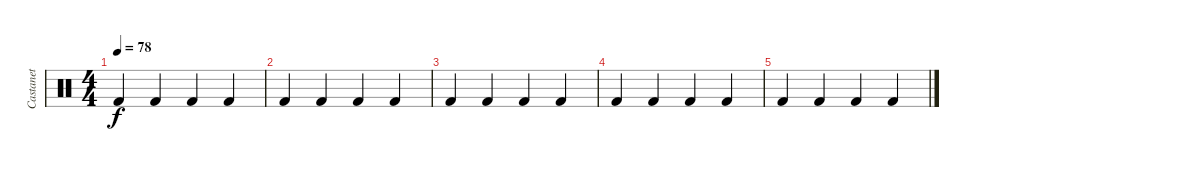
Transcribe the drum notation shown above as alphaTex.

\track ("Castanet" "Castanet") {instrument percussion}
\staff {score}
\articulation defaults
\ts (4 4)
\tempo 78
\clef neutral
\ks c "Kick (hit) 2".4{dy f} "Kick (hit) 2".4 "Kick (hit) 2".4 "Kick (hit) 2".4
|
"Kick (hit) 2".4 "Kick (hit) 2".4 "Kick (hit) 2".4 "Kick (hit) 2".4 |
"Kick (hit) 2".4 "Kick (hit) 2".4 "Kick (hit) 2".4 "Kick (hit) 2".4 |
"Kick (hit) 2".4 "Kick (hit) 2".4 "Kick (hit) 2".4 "Kick (hit) 2".4 |
"Kick (hit) 2".4 "Kick (hit) 2".4 "Kick (hit) 2".4 "Kick (hit) 2".4
